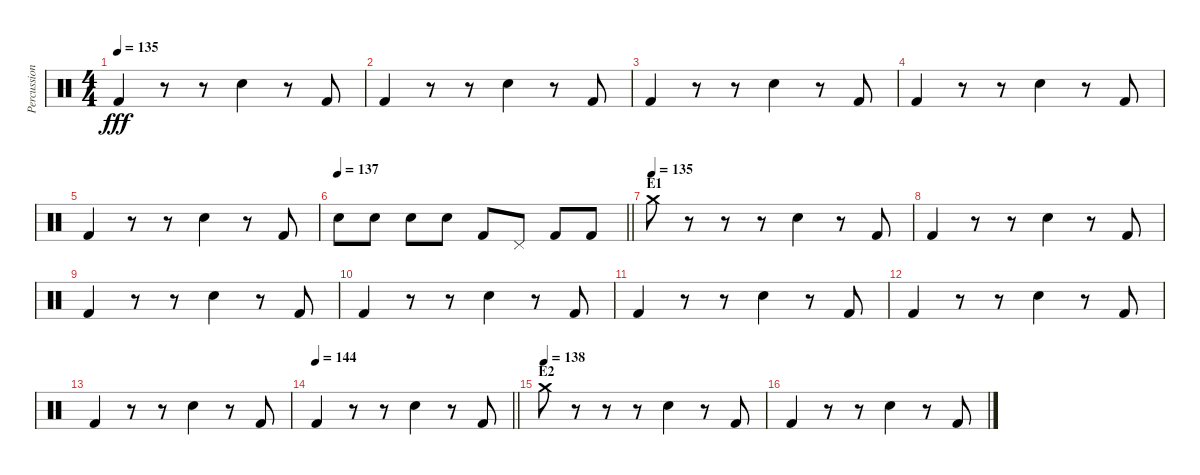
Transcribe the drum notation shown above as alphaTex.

\track ("Percussion" "Percussion") {instrument percussion}
\staff {score}
\articulation defaults
\ts (4 4)
\tempo 135
\clef neutral
\ks c "Kick (hit) 2".4{dy fff}
r.8 r.8 "Electric Snare (hit)".4 r.8 "Kick (hit) 2".8 |
"Kick (hit) 2".4 r.8 r.8 "Electric Snare (hit)".4 r.8 "Kick (hit) 2".8 |
"Kick (hit) 2".4 r.8 r.8 "Electric Snare (hit)".4 r.8 "Kick (hit) 2".8 |
"Kick (hit) 2".4 r.8 r.8 "Electric Snare (hit)".4 r.8 "Kick (hit) 2".8 |
"Kick (hit) 2".4 r.8 r.8 "Electric Snare (hit)".4 r.8 "Kick (hit) 2".8 |
\tempo 137
\barLineRight lightlight "Electric Snare (hit)".8 "Electric Snare (hit)".8 "Electric Snare (hit)".8 "Electric Snare (hit)".8 "Kick (hit) 2".8 "Pedal Hi-Hat (hit)".8 "Kick (hit) 2".8 "Kick (hit) 2".8
|
\section ("" "E1")
\tempo (135)
"Crash medium (hit)".8 r.8 r.8 r.8 "Electric Snare (hit)".4 r.8 "Kick (hit) 2".8 |
"Kick (hit) 2".4 r.8 r.8 "Electric Snare (hit)".4 r.8 "Kick (hit) 2".8 |
"Kick (hit) 2".4 r.8 r.8 "Electric Snare (hit)".4 r.8 "Kick (hit) 2".8 |
"Kick (hit) 2".4 r.8 r.8 "Electric Snare (hit)".4 r.8 "Kick (hit) 2".8 |
"Kick (hit) 2".4 r.8 r.8 "Electric Snare (hit)".4 r.8 "Kick (hit) 2".8 |
"Kick (hit) 2".4 r.8 r.8 "Electric Snare (hit)".4 r.8 "Kick (hit) 2".8 |
"Kick (hit) 2".4 r.8 r.8 "Electric Snare (hit)".4 r.8 "Kick (hit) 2".8 |
\tempo 144
\barLineRight lightlight "Kick (hit) 2".4
r.8 r.8 "Electric Snare (hit)".4 r.8 "Kick (hit) 2".8 |
\section ("" "E2")
\tempo (138)
"Crash medium (hit)".8 r.8 r.8 r.8 "Electric Snare (hit)".4 r.8 "Kick (hit) 2".8 |
"Kick (hit) 2".4 r.8 r.8 "Electric Snare (hit)".4 r.8 "Kick (hit) 2".8
